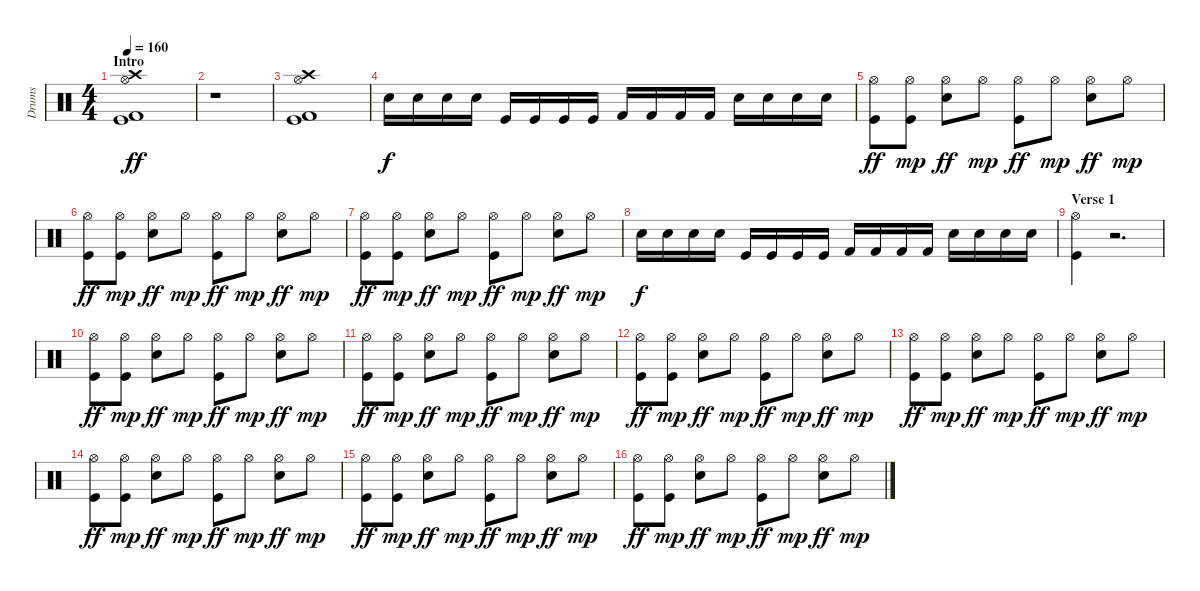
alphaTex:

\track ("Drums" "Drums") {instrument percussion}
\staff {score}
\articulation defaults
\ts (4 4)
\section ("" "Intro")
\tempo 160
\clef neutral
\ks c
("Kick (hit)" "Hi-Hat (open)" "Kick (hit) 2" "Crash high (hit)").1{dy ff} |
r.1 |
("Kick (hit)" "Hi-Hat (open)" "Kick (hit) 2" "Crash high (hit)").1 |
"Electric Snare (hit)".16{dy f} "Electric Snare (hit)".16 "Electric Snare (hit)".16 "Electric Snare (hit)".16 "Kick (hit)".16 "Kick (hit)".16 "Kick (hit)".16 "Kick (hit)".16 "Kick (hit) 2".16 "Kick (hit) 2".16 "Kick (hit) 2".16 "Kick (hit) 2".16 "Electric Snare (hit)".16 "Electric Snare (hit)".16 "Electric Snare (hit)".16 "Electric Snare (hit)".16 |
("Kick (hit)" "Hi-Hat (open)").8{dy ff} ("Kick (hit)" "Hi-Hat (open)").8{dy mp} ("Electric Snare (hit)" "Hi-Hat (open)").8{dy ff} "Hi-Hat (open)".8{dy mp} ("Kick (hit)" "Hi-Hat (open)").8{dy ff} "Hi-Hat (open)".8{dy mp} ("Electric Snare (hit)" "Hi-Hat (open)").8{dy ff} "Hi-Hat (open)".8{dy mp} |
("Kick (hit)" "Hi-Hat (open)").8{dy ff} ("Kick (hit)" "Hi-Hat (open)").8{dy mp} ("Electric Snare (hit)" "Hi-Hat (open)").8{dy ff} "Hi-Hat (open)".8{dy mp} ("Kick (hit)" "Hi-Hat (open)").8{dy ff} "Hi-Hat (open)".8{dy mp} ("Electric Snare (hit)" "Hi-Hat (open)").8{dy ff} "Hi-Hat (open)".8{dy mp} |
("Kick (hit)" "Hi-Hat (open)").8{dy ff} ("Kick (hit)" "Hi-Hat (open)").8{dy mp} ("Electric Snare (hit)" "Hi-Hat (open)").8{dy ff} "Hi-Hat (open)".8{dy mp} ("Kick (hit)" "Hi-Hat (open)").8{dy ff} "Hi-Hat (open)".8{dy mp} ("Electric Snare (hit)" "Hi-Hat (open)").8{dy ff} "Hi-Hat (open)".8{dy mp} |
"Electric Snare (hit)".16{dy f} "Electric Snare (hit)".16 "Electric Snare (hit)".16 "Electric Snare (hit)".16 "Kick (hit)".16 "Kick (hit)".16 "Kick (hit)".16 "Kick (hit)".16 "Kick (hit) 2".16 "Kick (hit) 2".16 "Kick (hit) 2".16 "Kick (hit) 2".16 "Electric Snare (hit)".16 "Electric Snare (hit)".16 "Electric Snare (hit)".16 "Electric Snare (hit)".16 |
\section ("" "Verse 1")
("Kick (hit)" "Hi-Hat (open)").4 r.2{d} |
("Kick (hit)" "Hi-Hat (open)").8{dy ff} ("Kick (hit)" "Hi-Hat (open)").8{dy mp} ("Electric Snare (hit)" "Hi-Hat (open)").8{dy ff} "Hi-Hat (open)".8{dy mp} ("Kick (hit)" "Hi-Hat (open)").8{dy ff} "Hi-Hat (open)".8{dy mp} ("Electric Snare (hit)" "Hi-Hat (open)").8{dy ff} "Hi-Hat (open)".8{dy mp} |
("Kick (hit)" "Hi-Hat (open)").8{dy ff} ("Kick (hit)" "Hi-Hat (open)").8{dy mp} ("Electric Snare (hit)" "Hi-Hat (open)").8{dy ff} "Hi-Hat (open)".8{dy mp} ("Kick (hit)" "Hi-Hat (open)").8{dy ff} "Hi-Hat (open)".8{dy mp} ("Electric Snare (hit)" "Hi-Hat (open)").8{dy ff} "Hi-Hat (open)".8{dy mp} |
("Kick (hit)" "Hi-Hat (open)").8{dy ff} ("Kick (hit)" "Hi-Hat (open)").8{dy mp} ("Electric Snare (hit)" "Hi-Hat (open)").8{dy ff} "Hi-Hat (open)".8{dy mp} ("Kick (hit)" "Hi-Hat (open)").8{dy ff} "Hi-Hat (open)".8{dy mp} ("Electric Snare (hit)" "Hi-Hat (open)").8{dy ff} "Hi-Hat (open)".8{dy mp} |
("Kick (hit)" "Hi-Hat (open)").8{dy ff} ("Kick (hit)" "Hi-Hat (open)").8{dy mp} ("Electric Snare (hit)" "Hi-Hat (open)").8{dy ff} "Hi-Hat (open)".8{dy mp} ("Kick (hit)" "Hi-Hat (open)").8{dy ff} "Hi-Hat (open)".8{dy mp} ("Electric Snare (hit)" "Hi-Hat (open)").8{dy ff} "Hi-Hat (open)".8{dy mp} |
("Kick (hit)" "Hi-Hat (open)").8{dy ff} ("Kick (hit)" "Hi-Hat (open)").8{dy mp} ("Electric Snare (hit)" "Hi-Hat (open)").8{dy ff} "Hi-Hat (open)".8{dy mp} ("Kick (hit)" "Hi-Hat (open)").8{dy ff} "Hi-Hat (open)".8{dy mp} ("Electric Snare (hit)" "Hi-Hat (open)").8{dy ff} "Hi-Hat (open)".8{dy mp} |
("Kick (hit)" "Hi-Hat (open)").8{dy ff} ("Kick (hit)" "Hi-Hat (open)").8{dy mp} ("Electric Snare (hit)" "Hi-Hat (open)").8{dy ff} "Hi-Hat (open)".8{dy mp} ("Kick (hit)" "Hi-Hat (open)").8{dy ff} "Hi-Hat (open)".8{dy mp} ("Electric Snare (hit)" "Hi-Hat (open)").8{dy ff} "Hi-Hat (open)".8{dy mp} |
("Kick (hit)" "Hi-Hat (open)").8{dy ff} ("Kick (hit)" "Hi-Hat (open)").8{dy mp} ("Electric Snare (hit)" "Hi-Hat (open)").8{dy ff} "Hi-Hat (open)".8{dy mp} ("Kick (hit)" "Hi-Hat (open)").8{dy ff} "Hi-Hat (open)".8{dy mp} ("Electric Snare (hit)" "Hi-Hat (open)").8{dy ff} "Hi-Hat (open)".8{dy mp}
